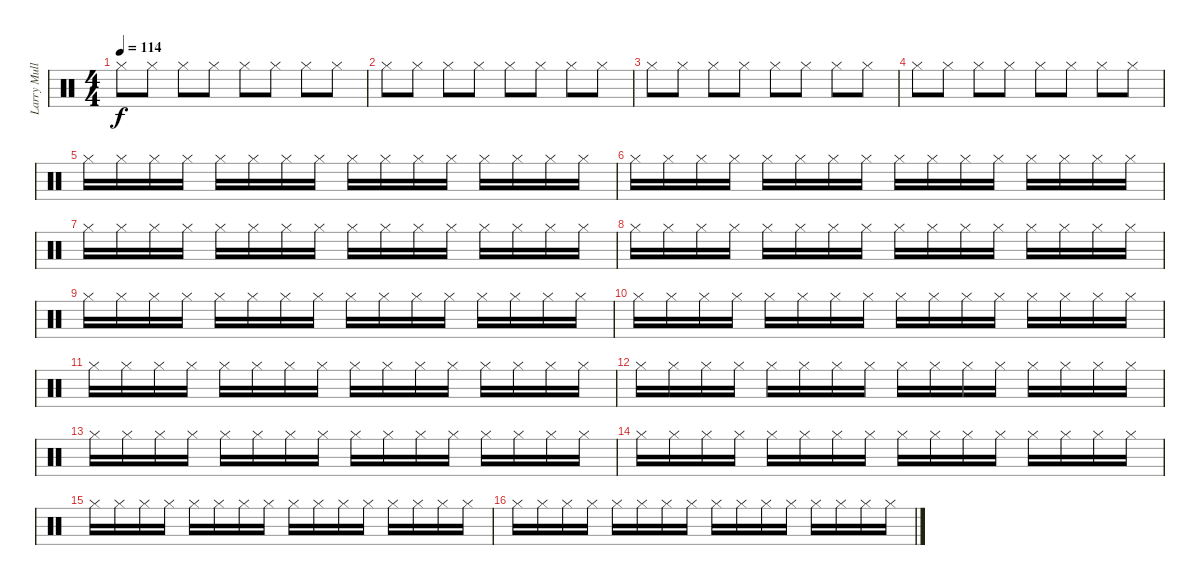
\track ("Larry Mullen Jr suplement for midi" "Larry Mull") {instrument percussion}
\staff {score}
\articulation defaults
\ts (4 4)
\tempo 114
\clef neutral
\ks c "Hi-Hat (closed)".8{dy f} "Hi-Hat (closed)".8 "Hi-Hat (closed)".8 "Hi-Hat (closed)".8 "Hi-Hat (closed)".8 "Hi-Hat (closed)".8 "Hi-Hat (closed)".8 "Hi-Hat (closed)".8
|
"Hi-Hat (closed)".8 "Hi-Hat (closed)".8 "Hi-Hat (closed)".8 "Hi-Hat (closed)".8 "Hi-Hat (closed)".8 "Hi-Hat (closed)".8 "Hi-Hat (closed)".8 "Hi-Hat (closed)".8 |
"Hi-Hat (closed)".8 "Hi-Hat (closed)".8 "Hi-Hat (closed)".8 "Hi-Hat (closed)".8 "Hi-Hat (closed)".8 "Hi-Hat (closed)".8 "Hi-Hat (closed)".8 "Hi-Hat (closed)".8 |
"Hi-Hat (closed)".8 "Hi-Hat (closed)".8 "Hi-Hat (closed)".8 "Hi-Hat (closed)".8 "Hi-Hat (closed)".8 "Hi-Hat (closed)".8 "Hi-Hat (closed)".8 "Hi-Hat (closed)".8 |
"Hi-Hat (closed)".16 "Hi-Hat (closed)".16 "Hi-Hat (closed)".16 "Hi-Hat (closed)".16 "Hi-Hat (closed)".16 "Hi-Hat (closed)".16 "Hi-Hat (closed)".16 "Hi-Hat (closed)".16 "Hi-Hat (closed)".16 "Hi-Hat (closed)".16 "Hi-Hat (closed)".16 "Hi-Hat (closed)".16 "Hi-Hat (closed)".16 "Hi-Hat (closed)".16 "Hi-Hat (closed)".16 "Hi-Hat (closed)".16 |
"Hi-Hat (closed)".16 "Hi-Hat (closed)".16 "Hi-Hat (closed)".16 "Hi-Hat (closed)".16 "Hi-Hat (closed)".16 "Hi-Hat (closed)".16 "Hi-Hat (closed)".16 "Hi-Hat (closed)".16 "Hi-Hat (closed)".16 "Hi-Hat (closed)".16 "Hi-Hat (closed)".16 "Hi-Hat (closed)".16 "Hi-Hat (closed)".16 "Hi-Hat (closed)".16 "Hi-Hat (closed)".16 "Hi-Hat (closed)".16 |
"Hi-Hat (closed)".16 "Hi-Hat (closed)".16 "Hi-Hat (closed)".16 "Hi-Hat (closed)".16 "Hi-Hat (closed)".16 "Hi-Hat (closed)".16 "Hi-Hat (closed)".16 "Hi-Hat (closed)".16 "Hi-Hat (closed)".16 "Hi-Hat (closed)".16 "Hi-Hat (closed)".16 "Hi-Hat (closed)".16 "Hi-Hat (closed)".16 "Hi-Hat (closed)".16 "Hi-Hat (closed)".16 "Hi-Hat (closed)".16 |
"Hi-Hat (closed)".16 "Hi-Hat (closed)".16 "Hi-Hat (closed)".16 "Hi-Hat (closed)".16 "Hi-Hat (closed)".16 "Hi-Hat (closed)".16 "Hi-Hat (closed)".16 "Hi-Hat (closed)".16 "Hi-Hat (closed)".16 "Hi-Hat (closed)".16 "Hi-Hat (closed)".16 "Hi-Hat (closed)".16 "Hi-Hat (closed)".16 "Hi-Hat (closed)".16 "Hi-Hat (closed)".16 "Hi-Hat (closed)".16 |
"Hi-Hat (closed)".16 "Hi-Hat (closed)".16 "Hi-Hat (closed)".16 "Hi-Hat (closed)".16 "Hi-Hat (closed)".16 "Hi-Hat (closed)".16 "Hi-Hat (closed)".16 "Hi-Hat (closed)".16 "Hi-Hat (closed)".16 "Hi-Hat (closed)".16 "Hi-Hat (closed)".16 "Hi-Hat (closed)".16 "Hi-Hat (closed)".16 "Hi-Hat (closed)".16 "Hi-Hat (closed)".16 "Hi-Hat (closed)".16 |
"Hi-Hat (closed)".16 "Hi-Hat (closed)".16 "Hi-Hat (closed)".16 "Hi-Hat (closed)".16 "Hi-Hat (closed)".16 "Hi-Hat (closed)".16 "Hi-Hat (closed)".16 "Hi-Hat (closed)".16 "Hi-Hat (closed)".16 "Hi-Hat (closed)".16 "Hi-Hat (closed)".16 "Hi-Hat (closed)".16 "Hi-Hat (closed)".16 "Hi-Hat (closed)".16 "Hi-Hat (closed)".16 "Hi-Hat (closed)".16 |
"Hi-Hat (closed)".16 "Hi-Hat (closed)".16 "Hi-Hat (closed)".16 "Hi-Hat (closed)".16 "Hi-Hat (closed)".16 "Hi-Hat (closed)".16 "Hi-Hat (closed)".16 "Hi-Hat (closed)".16 "Hi-Hat (closed)".16 "Hi-Hat (closed)".16 "Hi-Hat (closed)".16 "Hi-Hat (closed)".16 "Hi-Hat (closed)".16 "Hi-Hat (closed)".16 "Hi-Hat (closed)".16 "Hi-Hat (closed)".16 |
"Hi-Hat (closed)".16 "Hi-Hat (closed)".16 "Hi-Hat (closed)".16 "Hi-Hat (closed)".16 "Hi-Hat (closed)".16 "Hi-Hat (closed)".16 "Hi-Hat (closed)".16 "Hi-Hat (closed)".16 "Hi-Hat (closed)".16 "Hi-Hat (closed)".16 "Hi-Hat (closed)".16 "Hi-Hat (closed)".16 "Hi-Hat (closed)".16 "Hi-Hat (closed)".16 "Hi-Hat (closed)".16 "Hi-Hat (closed)".16 |
"Hi-Hat (closed)".16 "Hi-Hat (closed)".16 "Hi-Hat (closed)".16 "Hi-Hat (closed)".16 "Hi-Hat (closed)".16 "Hi-Hat (closed)".16 "Hi-Hat (closed)".16 "Hi-Hat (closed)".16 "Hi-Hat (closed)".16 "Hi-Hat (closed)".16 "Hi-Hat (closed)".16 "Hi-Hat (closed)".16 "Hi-Hat (closed)".16 "Hi-Hat (closed)".16 "Hi-Hat (closed)".16 "Hi-Hat (closed)".16 |
"Hi-Hat (closed)".16 "Hi-Hat (closed)".16 "Hi-Hat (closed)".16 "Hi-Hat (closed)".16 "Hi-Hat (closed)".16 "Hi-Hat (closed)".16 "Hi-Hat (closed)".16 "Hi-Hat (closed)".16 "Hi-Hat (closed)".16 "Hi-Hat (closed)".16 "Hi-Hat (closed)".16 "Hi-Hat (closed)".16 "Hi-Hat (closed)".16 "Hi-Hat (closed)".16 "Hi-Hat (closed)".16 "Hi-Hat (closed)".16 |
"Hi-Hat (closed)".16 "Hi-Hat (closed)".16 "Hi-Hat (closed)".16 "Hi-Hat (closed)".16 "Hi-Hat (closed)".16 "Hi-Hat (closed)".16 "Hi-Hat (closed)".16 "Hi-Hat (closed)".16 "Hi-Hat (closed)".16 "Hi-Hat (closed)".16 "Hi-Hat (closed)".16 "Hi-Hat (closed)".16 "Hi-Hat (closed)".16 "Hi-Hat (closed)".16 "Hi-Hat (closed)".16 "Hi-Hat (closed)".16 |
"Hi-Hat (closed)".16 "Hi-Hat (closed)".16 "Hi-Hat (closed)".16 "Hi-Hat (closed)".16 "Hi-Hat (closed)".16 "Hi-Hat (closed)".16 "Hi-Hat (closed)".16 "Hi-Hat (closed)".16 "Hi-Hat (closed)".16 "Hi-Hat (closed)".16 "Hi-Hat (closed)".16 "Hi-Hat (closed)".16 "Hi-Hat (closed)".16 "Hi-Hat (closed)".16 "Hi-Hat (closed)".16 "Hi-Hat (closed)".16
